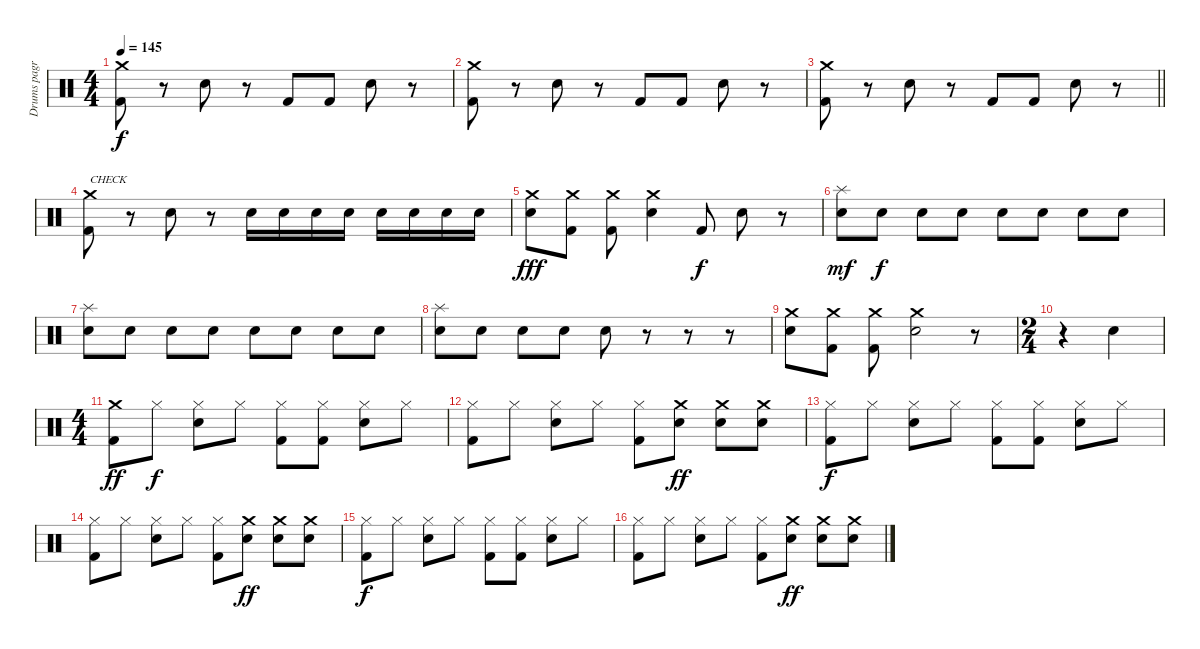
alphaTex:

\track ("Drums pagr" "Drums pagr") {instrument percussion}
\staff {score}
\articulation defaults
\ts (4 4)
\tempo 145
\clef neutral
\ks c
("Crash medium (hit)" "Kick (hit) 2").8{dy f} r.8 "Snare (hit) 2".8 r.8 "Kick (hit) 2".8 "Kick (hit) 2".8 "Snare (hit) 2".8 r.8 |
("Crash medium (hit)" "Kick (hit) 2").8 r.8 "Snare (hit) 2".8 r.8 "Kick (hit) 2".8 "Kick (hit) 2".8 "Snare (hit) 2".8 r.8 |
\barLineRight lightlight
("Crash medium (hit)" "Kick (hit) 2").8 r.8 "Snare (hit) 2".8 r.8 "Kick (hit) 2".8 "Kick (hit) 2".8 "Snare (hit) 2".8 r.8 |
\section ("" "")
("Crash medium (hit)" "Kick (hit) 2").8{txt "CHECK"} r.8 "Snare (hit) 2".8 r.8 "Snare (hit) 2".16 "Snare (hit) 2".16 "Snare (hit) 2".16 "Snare (hit) 2".16 "Snare (hit) 2".16 "Snare (hit) 2".16 "Snare (hit) 2".16 "Snare (hit) 2".16 |
("Crash medium (hit)" "Snare (hit) 2").8{dy fff} ("Crash medium (hit)" "Kick (hit) 2").8 ("Crash medium (hit)" "Kick (hit) 2").8 ("Crash medium (hit)" "Snare (hit) 2").4 "Kick (hit) 2".8{dy f} "Snare (hit) 2".8 r.8 |
("Splash (hit)" "Snare (hit) 2").8{dy mf} "Snare (hit) 2".8{dy f} "Snare (hit) 2".8 "Snare (hit) 2".8 "Snare (hit) 2".8 "Snare (hit) 2".8 "Snare (hit) 2".8 "Snare (hit) 2".8 |
("Splash (hit)" "Snare (hit) 2").8 "Snare (hit) 2".8 "Snare (hit) 2".8 "Snare (hit) 2".8 "Snare (hit) 2".8 "Snare (hit) 2".8 "Snare (hit) 2".8 "Snare (hit) 2".8 |
("Splash (hit)" "Snare (hit) 2").8 "Snare (hit) 2".8 "Snare (hit) 2".8 "Snare (hit) 2".8 "Snare (hit) 2".8 r.8 r.8 r.8 |
("Crash medium (hit)" "Snare (hit) 2").8 ("Crash medium (hit)" "Kick (hit) 2").8 ("Crash medium (hit)" "Kick (hit) 2").8 ("Crash medium (hit)" "Snare (hit) 2").2 r.8 |
\ts (2 4)
r.4 "Snare (hit) 2".4 |
\ts (4 4)
("Crash medium (hit)" "Kick (hit) 2").8{dy ff} "Hi-Hat (closed)".8{dy f} ("Hi-Hat (closed)" "Snare (hit) 2").8 "Hi-Hat (closed)".8 ("Hi-Hat (closed)" "Kick (hit) 2").8 ("Hi-Hat (closed)" "Kick (hit) 2").8 ("Hi-Hat (closed)" "Snare (hit) 2").8 "Hi-Hat (closed)".8 |
("Hi-Hat (closed)" "Kick (hit) 2").8 "Hi-Hat (closed)".8 ("Hi-Hat (closed)" "Snare (hit) 2").8 "Hi-Hat (closed)".8 ("Hi-Hat (closed)" "Kick (hit) 2").8 ("Crash medium (hit)" "Snare (hit) 2").8{dy ff} ("Crash medium (hit)" "Snare (hit) 2").8 ("Crash medium (hit)" "Snare (hit) 2").8 |
("Hi-Hat (closed)" "Kick (hit) 2").8{dy f} "Hi-Hat (closed)".8 ("Hi-Hat (closed)" "Snare (hit) 2").8 "Hi-Hat (closed)".8 ("Hi-Hat (closed)" "Kick (hit) 2").8 ("Hi-Hat (closed)" "Kick (hit) 2").8 ("Hi-Hat (closed)" "Snare (hit) 2").8 "Hi-Hat (closed)".8 |
("Hi-Hat (closed)" "Kick (hit) 2").8 "Hi-Hat (closed)".8 ("Hi-Hat (closed)" "Snare (hit) 2").8 "Hi-Hat (closed)".8 ("Hi-Hat (closed)" "Kick (hit) 2").8 ("Crash medium (hit)" "Snare (hit) 2").8{dy ff} ("Crash medium (hit)" "Snare (hit) 2").8 ("Crash medium (hit)" "Snare (hit) 2").8 |
("Hi-Hat (closed)" "Kick (hit) 2").8{dy f} "Hi-Hat (closed)".8 ("Hi-Hat (closed)" "Snare (hit) 2").8 "Hi-Hat (closed)".8 ("Hi-Hat (closed)" "Kick (hit) 2").8 ("Hi-Hat (closed)" "Kick (hit) 2").8 ("Hi-Hat (closed)" "Snare (hit) 2").8 "Hi-Hat (closed)".8 |
("Hi-Hat (closed)" "Kick (hit) 2").8 "Hi-Hat (closed)".8 ("Hi-Hat (closed)" "Snare (hit) 2").8 "Hi-Hat (closed)".8 ("Hi-Hat (closed)" "Kick (hit) 2").8 ("Crash medium (hit)" "Snare (hit) 2").8{dy ff} ("Crash medium (hit)" "Snare (hit) 2").8 ("Crash medium (hit)" "Snare (hit) 2").8
